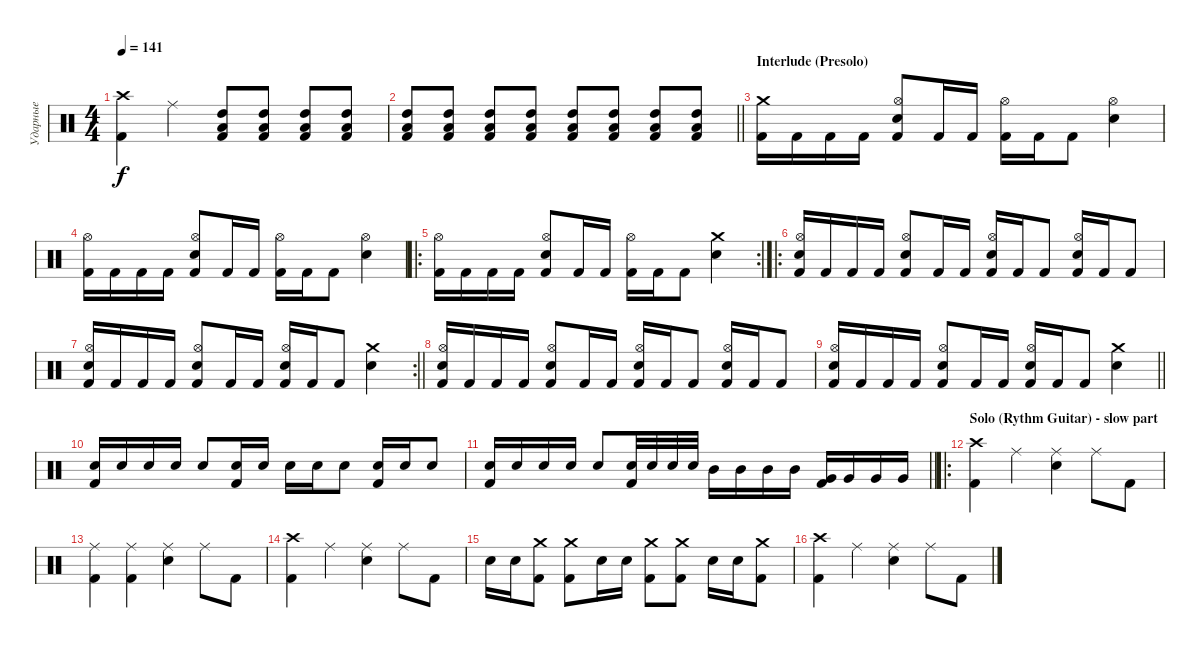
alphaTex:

\track ("Ударные" "Ударные") {instrument percussion}
\staff {score}
\articulation defaults
\ts (4 4)
\tempo 141
\clef neutral
\ks c
("Crash high (hit)" "Kick (hit) 2").4{dy f} "Ride (middle)".4 ("High Tom (hit)" "Low Tom (hit)" "Kick (hit) 2").8 ("High Tom (hit)" "Low Tom (hit)" "Kick (hit) 2").8 ("High Tom (hit)" "Low Tom (hit)" "Kick (hit) 2").8 ("High Tom (hit)" "Low Tom (hit)" "Kick (hit) 2").8 |
\barLineRight lightlight
("High Tom (hit)" "Low Tom (hit)" "Kick (hit) 2").8 ("High Tom (hit)" "Low Tom (hit)" "Kick (hit) 2").8 ("High Tom (hit)" "Low Tom (hit)" "Kick (hit) 2").8 ("High Tom (hit)" "Low Tom (hit)" "Kick (hit) 2").8 ("High Tom (hit)" "Low Tom (hit)" "Kick (hit) 2").8 ("High Tom (hit)" "Low Tom (hit)" "Kick (hit) 2").8 ("High Tom (hit)" "Low Tom (hit)" "Kick (hit) 2").8 ("High Tom (hit)" "Low Tom (hit)" "Kick (hit) 2").8 |
\section ("" "Interlude (Presolo)")
("Crash medium (hit)" "Kick (hit) 2").16 "Kick (hit) 2".16 "Kick (hit) 2".16 "Kick (hit) 2".16 ("Hi-Hat (open)" "Electric Snare (hit)" "Kick (hit) 2").8 "Kick (hit) 2".16 "Kick (hit) 2".16 ("Hi-Hat (open)" "Kick (hit) 2").16 "Kick (hit) 2".16 "Kick (hit) 2".8 ("Hi-Hat (open)" "Electric Snare (hit)").4 |
("Hi-Hat (open)" "Kick (hit) 2").16 "Kick (hit) 2".16 "Kick (hit) 2".16 "Kick (hit) 2".16 ("Hi-Hat (open)" "Electric Snare (hit)" "Kick (hit) 2").8 "Kick (hit) 2".16 "Kick (hit) 2".16 ("Hi-Hat (open)" "Kick (hit) 2").16 "Kick (hit) 2".16 "Kick (hit) 2".8 ("Hi-Hat (open)" "Electric Snare (hit)").4 |
\ro
\rc 2
("Hi-Hat (open)" "Kick (hit) 2").16 "Kick (hit) 2".16 "Kick (hit) 2".16 "Kick (hit) 2".16 ("Hi-Hat (open)" "Electric Snare (hit)" "Kick (hit) 2").8 "Kick (hit) 2".16 "Kick (hit) 2".16 ("Hi-Hat (open)" "Kick (hit) 2").16 "Kick (hit) 2".16 "Kick (hit) 2".8 ("Crash medium (hit)" "Electric Snare (hit)").4 |
\ro
("Hi-Hat (open)" "Electric Snare (hit)" "Kick (hit) 2").16 "Kick (hit) 2".16 "Kick (hit) 2".16 "Kick (hit) 2".16 ("Hi-Hat (open)" "Electric Snare (hit)" "Kick (hit) 2").8 "Kick (hit) 2".16 "Kick (hit) 2".16 ("Hi-Hat (open)" "Electric Snare (hit)" "Kick (hit) 2").16 "Kick (hit) 2".16 "Kick (hit) 2".8 ("Hi-Hat (open)" "Electric Snare (hit)" "Kick (hit) 2").16 "Kick (hit) 2".16 "Kick (hit) 2".8 |
\rc 2
\barLineRight lightlight
("Hi-Hat (open)" "Electric Snare (hit)" "Kick (hit) 2").16 "Kick (hit) 2".16 "Kick (hit) 2".16 "Kick (hit) 2".16 ("Hi-Hat (open)" "Electric Snare (hit)" "Kick (hit) 2").8 "Kick (hit) 2".16 "Kick (hit) 2".16 ("Hi-Hat (open)" "Electric Snare (hit)" "Kick (hit) 2").16 "Kick (hit) 2".16 "Kick (hit) 2".8 ("Crash medium (hit)" "Electric Snare (hit)").4 |
("Hi-Hat (open)" "Electric Snare (hit)" "Kick (hit) 2").16 "Kick (hit) 2".16 "Kick (hit) 2".16 "Kick (hit) 2".16 ("Hi-Hat (open)" "Electric Snare (hit)" "Kick (hit) 2").8 "Kick (hit) 2".16 "Kick (hit) 2".16 ("Hi-Hat (open)" "Electric Snare (hit)" "Kick (hit) 2").16 "Kick (hit) 2".16 "Kick (hit) 2".8 ("Hi-Hat (open)" "Electric Snare (hit)" "Kick (hit) 2").16 "Kick (hit) 2".16 "Kick (hit) 2".8 |
\barLineRight lightlight
("Hi-Hat (open)" "Electric Snare (hit)" "Kick (hit) 2").16 "Kick (hit) 2".16 "Kick (hit) 2".16 "Kick (hit) 2".16 ("Hi-Hat (open)" "Electric Snare (hit)" "Kick (hit) 2").8 "Kick (hit) 2".16 "Kick (hit) 2".16 ("Hi-Hat (open)" "Electric Snare (hit)" "Kick (hit) 2").16 "Kick (hit) 2".16 "Kick (hit) 2".8 ("Crash medium (hit)" "Electric Snare (hit)").4 |
("Electric Snare (hit)" "Kick (hit) 2").16 "Electric Snare (hit)".16 "Electric Snare (hit)".16 "Electric Snare (hit)".16 "Electric Snare (hit)".8 ("Electric Snare (hit)" "Kick (hit) 2").16 "Electric Snare (hit)".16 "Electric Snare (hit)".16 "Electric Snare (hit)".16 "Electric Snare (hit)".8 ("Electric Snare (hit)" "Kick (hit) 2").16 "Electric Snare (hit)".16 "Electric Snare (hit)".8 |
\barLineRight lightlight
("Electric Snare (hit)" "Kick (hit) 2").16 "Electric Snare (hit)".16 "Electric Snare (hit)".16 "Electric Snare (hit)".16 "Electric Snare (hit)".8 ("Electric Snare (hit)" "Kick (hit) 2").32 "Electric Snare (hit)".32 "Electric Snare (hit)".32 "Electric Snare (hit)".32 "Mid Tom (hit)".16 "Mid Tom (hit)".16 "Mid Tom (hit)".16 "Mid Tom (hit)".16 ("Very Low Tom (hit)" "Kick (hit) 2").16 "Very Low Tom (hit)".16 "Very Low Tom (hit)".16 "Very Low Tom (hit)".16 |
\ro
\section ("" "Solo (Rythm Guitar) - slow part")
("Crash high (hit)" "Kick (hit) 2").4 "Ride (middle)".4 ("Ride (middle)" "Electric Snare (hit)").4 "Ride (middle)".8 "Kick (hit) 2".8 |
("Ride (middle)" "Kick (hit) 2").4 ("Ride (middle)" "Kick (hit) 2").4 ("Ride (middle)" "Electric Snare (hit)").4 "Ride (middle)".8 "Kick (hit) 2".8 |
("Crash high (hit)" "Kick (hit) 2").4 "Ride (middle)".4 ("Ride (middle)" "Electric Snare (hit)").4 "Ride (middle)".8 "Kick (hit) 2".8 |
"Electric Snare (hit)".16 "Electric Snare (hit)".16 ("Crash medium (hit)" "Kick (hit) 2").8 ("Crash medium (hit)" "Kick (hit) 2").8 "Electric Snare (hit)".16 "Electric Snare (hit)".16 ("Crash medium (hit)" "Kick (hit) 2").8 ("Crash medium (hit)" "Kick (hit) 2").8 "Electric Snare (hit)".16 "Electric Snare (hit)".16 ("Crash medium (hit)" "Kick (hit) 2").8 |
("Crash high (hit)" "Kick (hit) 2").4 "Ride (middle)".4 ("Ride (middle)" "Electric Snare (hit)").4 "Ride (middle)".8 "Kick (hit) 2".8
